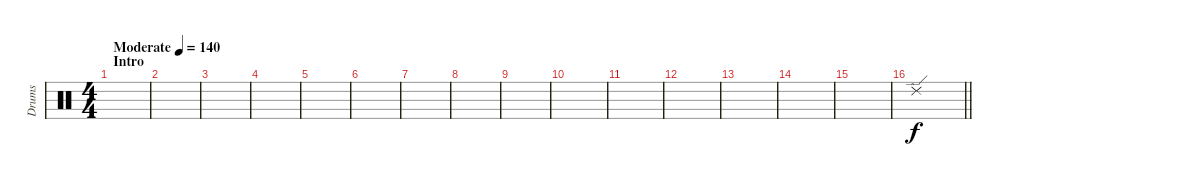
\track ("Drums" "Drums") {instrument percussion}
\staff {score}
\articulation defaults
\ts (4 4)
\section ("" "Intro")
\tempo (140 "Moderate")
\clef neutral
\ks c
|
|
|
|
|
|
|
|
|
|
|
|
|
|
|
\barLineRight lightlight "Ride (edge) 2".1
